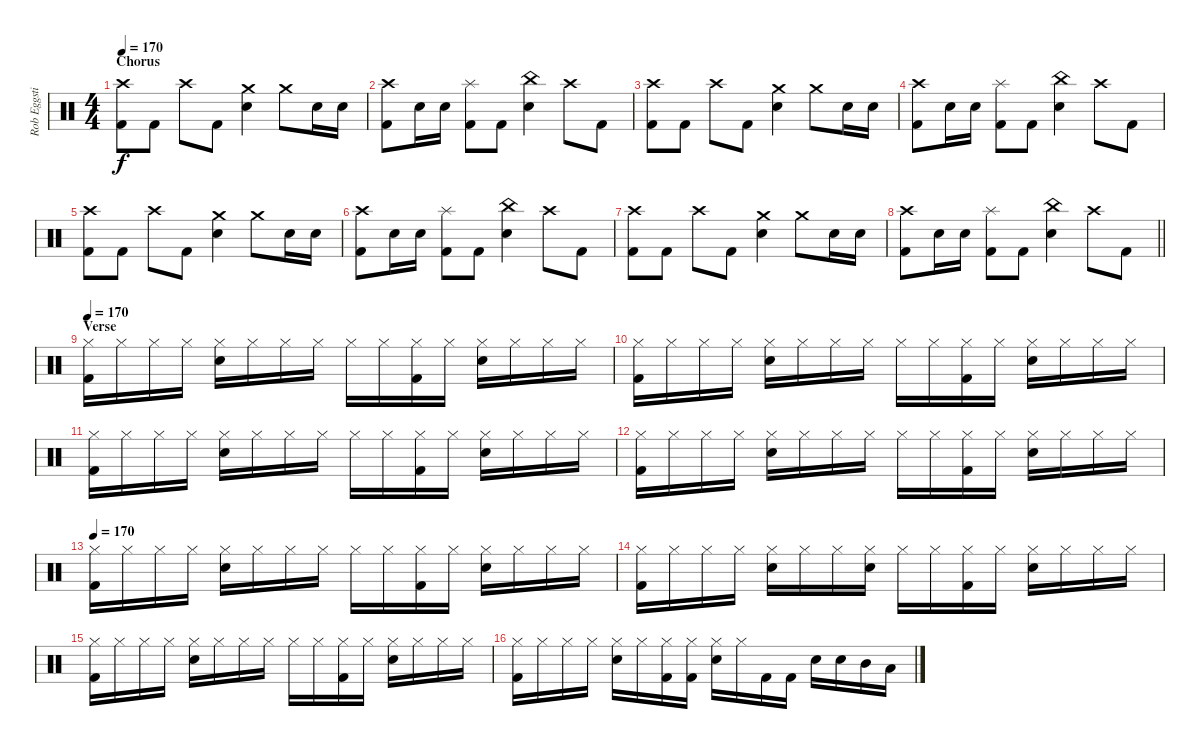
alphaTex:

\track ("Rob Eggstick" "Rob Eggsti") {instrument percussion}
\staff {score}
\articulation defaults
\ts (4 4)
\section ("" "Chorus")
\tempo 170
\clef neutral
\ks c
("Crash high (hit)" "Kick (hit) 2").8{dy f} "Kick (hit) 2".8 "Crash high (hit)".8 "Kick (hit) 2".8 ("Crash medium (hit)" "Electric Snare (hit)").4 "Crash medium (hit)".8 "Electric Snare (hit)".16 "Electric Snare (hit)".16 |
("Crash high (hit)" "Kick (hit) 2").8 "Electric Snare (hit)".16 "Electric Snare (hit)".16 ("Splash (hit)" "Kick (hit) 2").8 "Kick (hit) 2".8 ("China (hit)" "Electric Snare (hit)").4 "Crash high (hit)".8 "Kick (hit) 2".8 |
("Crash high (hit)" "Kick (hit) 2").8 "Kick (hit) 2".8 "Crash high (hit)".8 "Kick (hit) 2".8 ("Crash medium (hit)" "Electric Snare (hit)").4 "Crash medium (hit)".8 "Electric Snare (hit)".16 "Electric Snare (hit)".16 |
("Crash high (hit)" "Kick (hit) 2").8 "Electric Snare (hit)".16 "Electric Snare (hit)".16 ("Splash (hit)" "Kick (hit) 2").8 "Kick (hit) 2".8 ("China (hit)" "Electric Snare (hit)").4 "Crash high (hit)".8 "Kick (hit) 2".8 |
("Crash high (hit)" "Kick (hit) 2").8 "Kick (hit) 2".8 "Crash high (hit)".8 "Kick (hit) 2".8 ("Crash medium (hit)" "Electric Snare (hit)").4 "Crash medium (hit)".8 "Electric Snare (hit)".16 "Electric Snare (hit)".16 |
("Crash high (hit)" "Kick (hit) 2").8 "Electric Snare (hit)".16 "Electric Snare (hit)".16 ("Splash (hit)" "Kick (hit) 2").8 "Kick (hit) 2".8 ("China (hit)" "Electric Snare (hit)").4 "Crash high (hit)".8 "Kick (hit) 2".8 |
("Crash high (hit)" "Kick (hit) 2").8 "Kick (hit) 2".8 "Crash high (hit)".8 "Kick (hit) 2".8 ("Crash medium (hit)" "Electric Snare (hit)").4 "Crash medium (hit)".8 "Electric Snare (hit)".16 "Electric Snare (hit)".16 |
\barLineRight lightlight
("Crash high (hit)" "Kick (hit) 2").8 "Electric Snare (hit)".16 "Electric Snare (hit)".16 ("Splash (hit)" "Kick (hit) 2").8 "Kick (hit) 2".8 ("China (hit)" "Electric Snare (hit)").4 "Crash high (hit)".8 "Kick (hit) 2".8 |
\section ("" "Verse")
\tempo 170
("Hi-Hat (closed)" "Kick (hit) 2").16 "Hi-Hat (closed)".16 "Hi-Hat (closed)".16 "Hi-Hat (closed)".16 ("Hi-Hat (closed)" "Electric Snare (hit)").16 "Hi-Hat (closed)".16 "Hi-Hat (closed)".16 "Hi-Hat (closed)".16 "Hi-Hat (closed)".16 "Hi-Hat (closed)".16 ("Hi-Hat (closed)" "Kick (hit) 2").16 "Hi-Hat (closed)".16 ("Hi-Hat (closed)" "Electric Snare (hit)").16 "Hi-Hat (closed)".16 "Hi-Hat (closed)".16 "Hi-Hat (closed)".16 |
("Hi-Hat (closed)" "Kick (hit) 2").16 "Hi-Hat (closed)".16 "Hi-Hat (closed)".16 "Hi-Hat (closed)".16 ("Hi-Hat (closed)" "Electric Snare (hit)").16 "Hi-Hat (closed)".16 "Hi-Hat (closed)".16 "Hi-Hat (closed)".16 "Hi-Hat (closed)".16 "Hi-Hat (closed)".16 ("Hi-Hat (closed)" "Kick (hit) 2").16 "Hi-Hat (closed)".16 ("Hi-Hat (closed)" "Electric Snare (hit)").16 "Hi-Hat (closed)".16 "Hi-Hat (closed)".16 "Hi-Hat (closed)".16 |
("Hi-Hat (closed)" "Kick (hit) 2").16 "Hi-Hat (closed)".16 "Hi-Hat (closed)".16 "Hi-Hat (closed)".16 ("Hi-Hat (closed)" "Electric Snare (hit)").16 "Hi-Hat (closed)".16 "Hi-Hat (closed)".16 "Hi-Hat (closed)".16 "Hi-Hat (closed)".16 "Hi-Hat (closed)".16 ("Hi-Hat (closed)" "Kick (hit) 2").16 "Hi-Hat (closed)".16 ("Hi-Hat (closed)" "Electric Snare (hit)").16 "Hi-Hat (closed)".16 "Hi-Hat (closed)".16 "Hi-Hat (closed)".16 |
("Hi-Hat (closed)" "Kick (hit) 2").16 "Hi-Hat (closed)".16 "Hi-Hat (closed)".16 "Hi-Hat (closed)".16 ("Hi-Hat (closed)" "Electric Snare (hit)").16 "Hi-Hat (closed)".16 "Hi-Hat (closed)".16 "Hi-Hat (closed)".16 "Hi-Hat (closed)".16 "Hi-Hat (closed)".16 ("Hi-Hat (closed)" "Kick (hit) 2").16 "Hi-Hat (closed)".16 ("Hi-Hat (closed)" "Electric Snare (hit)").16 "Hi-Hat (closed)".16 "Hi-Hat (closed)".16 "Hi-Hat (closed)".16 |
\tempo 170
("Hi-Hat (closed)" "Kick (hit) 2").16 "Hi-Hat (closed)".16 "Hi-Hat (closed)".16 "Hi-Hat (closed)".16 ("Hi-Hat (closed)" "Electric Snare (hit)").16 "Hi-Hat (closed)".16 "Hi-Hat (closed)".16 "Hi-Hat (closed)".16 "Hi-Hat (closed)".16 "Hi-Hat (closed)".16 ("Hi-Hat (closed)" "Kick (hit) 2").16 "Hi-Hat (closed)".16 ("Hi-Hat (closed)" "Electric Snare (hit)").16 "Hi-Hat (closed)".16 "Hi-Hat (closed)".16 "Hi-Hat (closed)".16 |
("Hi-Hat (closed)" "Kick (hit) 2").16 "Hi-Hat (closed)".16 "Hi-Hat (closed)".16 "Hi-Hat (closed)".16 ("Hi-Hat (closed)" "Electric Snare (hit)").16 "Hi-Hat (closed)".16 "Hi-Hat (closed)".16 ("Hi-Hat (closed)" "Electric Snare (hit)").16 "Hi-Hat (closed)".16 "Hi-Hat (closed)".16 ("Hi-Hat (closed)" "Kick (hit) 2").16 "Hi-Hat (closed)".16 ("Hi-Hat (closed)" "Electric Snare (hit)").16 "Hi-Hat (closed)".16 "Hi-Hat (closed)".16 "Hi-Hat (closed)".16 |
("Hi-Hat (closed)" "Kick (hit) 2").16 "Hi-Hat (closed)".16 "Hi-Hat (closed)".16 "Hi-Hat (closed)".16 ("Hi-Hat (closed)" "Electric Snare (hit)").16 "Hi-Hat (closed)".16 "Hi-Hat (closed)".16 "Hi-Hat (closed)".16 "Hi-Hat (closed)".16 "Hi-Hat (closed)".16 ("Hi-Hat (closed)" "Kick (hit) 2").16 "Hi-Hat (closed)".16 ("Hi-Hat (closed)" "Electric Snare (hit)").16 "Hi-Hat (closed)".16 "Hi-Hat (closed)".16 "Hi-Hat (closed)".16 |
("Hi-Hat (closed)" "Kick (hit) 2").16 "Hi-Hat (closed)".16 "Hi-Hat (closed)".16 "Hi-Hat (closed)".16 ("Hi-Hat (closed)" "Electric Snare (hit)").16 "Hi-Hat (closed)".16 ("Hi-Hat (closed)" "Kick (hit) 2").16 ("Hi-Hat (closed)" "Kick (hit) 2").16 ("Hi-Hat (closed)" "Electric Snare (hit)").16 "Hi-Hat (closed)".16 "Kick (hit) 2".16 "Kick (hit) 2".16 "Electric Snare (hit)".16 "Electric Snare (hit)".16 "Mid Tom (hit)".16 "Low Tom (hit)".16
